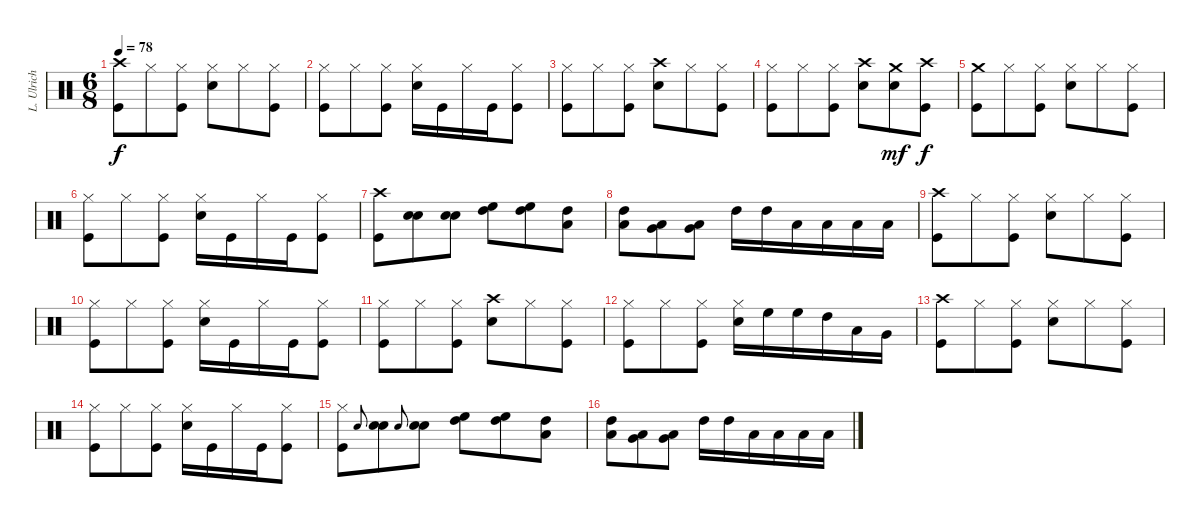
\track ("L. Ulrich" "L. Ulrich") {instrument percussion}
\staff {score}
\articulation defaults
\ts (6 8)
\tempo 78
\clef neutral
\ks c
("Crash high (hit)" "Kick (hit)").8{dy f} "Hi-Hat (closed)".8 ("Hi-Hat (closed)" "Kick (hit)").8 ("Hi-Hat (closed)" "Snare (hit) 2").8 "Hi-Hat (closed)".8 ("Hi-Hat (closed)" "Kick (hit)").8 |
("Hi-Hat (closed)" "Kick (hit)").8 "Hi-Hat (closed)".8 ("Hi-Hat (closed)" "Kick (hit)").8 ("Hi-Hat (closed)" "Snare (hit) 2").16 "Kick (hit)".16 "Hi-Hat (closed)".16 "Kick (hit)".16 ("Hi-Hat (closed)" "Kick (hit)").8 |
("Hi-Hat (closed)" "Kick (hit)").8 "Hi-Hat (closed)".8 ("Hi-Hat (closed)" "Kick (hit)").8 ("Crash high (hit)" "Snare (hit) 2").8 "Hi-Hat (closed)".8 ("Hi-Hat (closed)" "Kick (hit)").8 |
("Hi-Hat (closed)" "Kick (hit)").8 "Hi-Hat (closed)".8 ("Hi-Hat (closed)" "Kick (hit)").8 ("Crash high (hit)" "Snare (hit) 2").8 ("Crash medium (hit)" "Snare (hit) 2").8{dy mf} ("Crash high (hit)" "Kick (hit)").8{dy f} |
("Crash medium (hit)" "Kick (hit)").8 "Hi-Hat (closed)".8 ("Hi-Hat (closed)" "Kick (hit)").8 ("Hi-Hat (closed)" "Snare (hit) 2").8 "Hi-Hat (closed)".8 ("Hi-Hat (closed)" "Kick (hit)").8 |
("Hi-Hat (closed)" "Kick (hit)").8 "Hi-Hat (closed)".8 ("Hi-Hat (closed)" "Kick (hit)").8 ("Hi-Hat (closed)" "Snare (hit) 2").16 "Kick (hit)".16 "Hi-Hat (closed)".16 "Kick (hit)".16 ("Hi-Hat (closed)" "Kick (hit)").8 |
("Crash high (hit)" "Kick (hit)").8 ("Snare (hit) 2" "Snare (hit) 2").8 ("Snare (hit) 2" "Snare (hit) 2").8 ("High Floor Tom (hit)" "High Tom (hit)").8 ("High Floor Tom (hit)" "High Tom (hit)").8 ("High Tom (hit)" "Low Tom (hit)").8 |
("High Tom (hit)" "Low Tom (hit)").8 ("Low Tom (hit)" "Very Low Tom (hit)").8 ("Low Tom (hit)" "Very Low Tom (hit)").8 "High Tom (hit)".16 "High Tom (hit)".16 "Low Tom (hit)".16 "Low Tom (hit)".16 "Low Floor Tom (hit)".16 "Low Floor Tom (hit)".16 |
("Crash high (hit)" "Kick (hit)").8 "Hi-Hat (closed)".8 ("Hi-Hat (closed)" "Kick (hit)").8 ("Hi-Hat (closed)" "Snare (hit) 2").8 "Hi-Hat (closed)".8 ("Hi-Hat (closed)" "Kick (hit)").8 |
("Hi-Hat (closed)" "Kick (hit)").8 "Hi-Hat (closed)".8 ("Hi-Hat (closed)" "Kick (hit)").8 ("Hi-Hat (closed)" "Snare (hit) 2").16 "Kick (hit)".16 "Hi-Hat (closed)".16 "Kick (hit)".16 ("Hi-Hat (closed)" "Kick (hit)").8 |
("Hi-Hat (closed)" "Kick (hit)").8 "Hi-Hat (closed)".8 ("Hi-Hat (closed)" "Kick (hit)").8 ("Crash high (hit)" "Snare (hit) 2").8 "Hi-Hat (closed)".8 ("Hi-Hat (closed)" "Kick (hit)").8 |
("Hi-Hat (closed)" "Kick (hit)").8 "Hi-Hat (closed)".8 ("Hi-Hat (closed)" "Kick (hit)").8 ("Hi-Hat (closed)" "Snare (hit) 2").16 "High Floor Tom (hit)".16 "High Floor Tom (hit)".16 "High Tom (hit)".16 "Low Tom (hit)".16 "Very Low Tom (hit)".16 |
("Crash high (hit)" "Kick (hit)").8 "Hi-Hat (closed)".8 ("Hi-Hat (closed)" "Kick (hit)").8 ("Hi-Hat (closed)" "Snare (hit) 2").8 "Hi-Hat (closed)".8 ("Hi-Hat (closed)" "Kick (hit)").8 |
("Hi-Hat (closed)" "Kick (hit)").8 "Hi-Hat (closed)".8 ("Hi-Hat (closed)" "Kick (hit)").8 ("Hi-Hat (closed)" "Snare (hit) 2").16 "Kick (hit)".16 "Hi-Hat (closed)".16 "Kick (hit)".16 ("Hi-Hat (closed)" "Kick (hit)").8 |
("Hi-Hat (closed)" "Kick (hit)").8 "Snare (hit) 2".8{gr onbeat} ("Snare (hit) 2" "Snare (hit) 2").8 "Snare (hit) 2".8{gr onbeat} ("Snare (hit) 2" "Snare (hit) 2").8 ("High Floor Tom (hit)" "High Tom (hit)").8 ("High Floor Tom (hit)" "High Tom (hit)").8 ("High Tom (hit)" "Low Tom (hit)").8 |
("High Tom (hit)" "Low Tom (hit)").8 ("Low Tom (hit)" "Very Low Tom (hit)").8 ("Low Tom (hit)" "Very Low Tom (hit)").8 "High Tom (hit)".16 "High Tom (hit)".16 "Low Tom (hit)".16 "Low Tom (hit)".16 "Low Floor Tom (hit)".16 "Low Floor Tom (hit)".16
